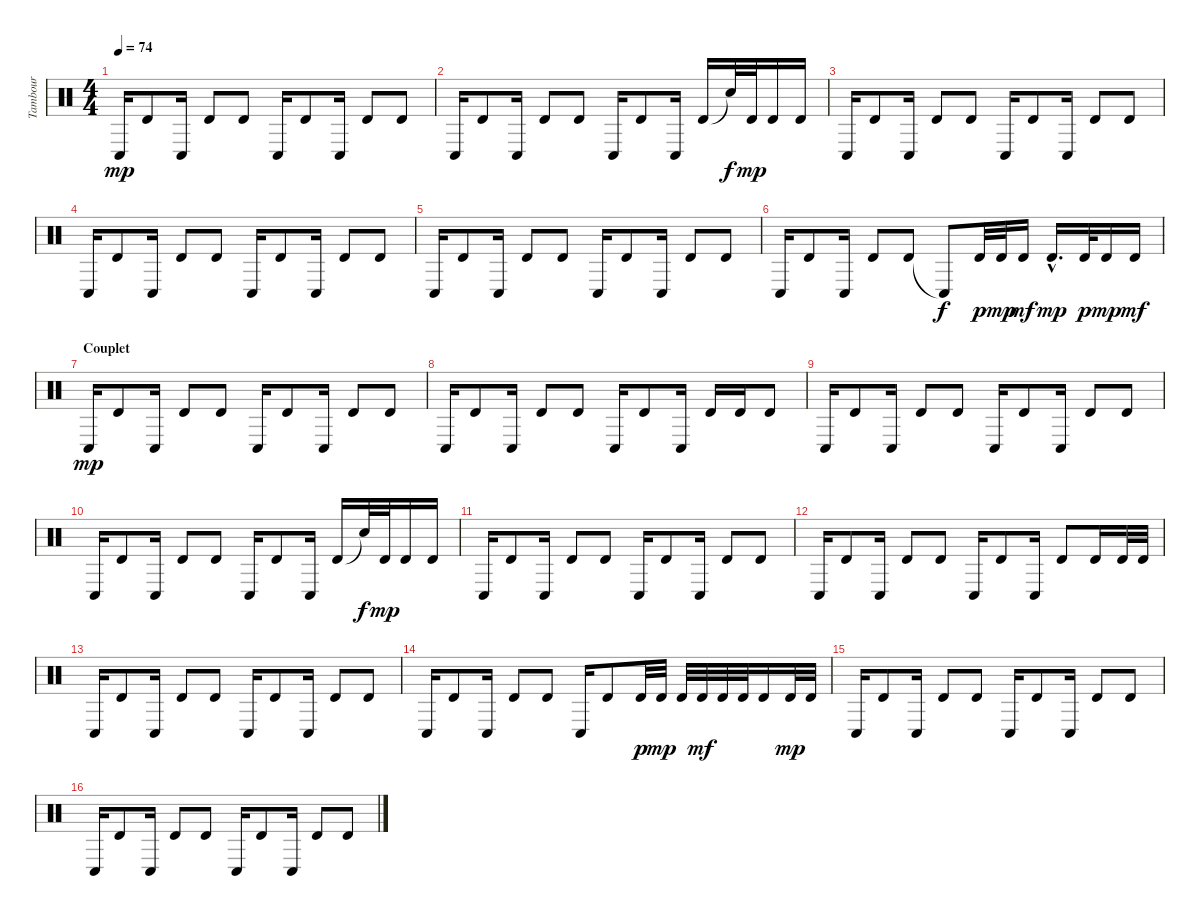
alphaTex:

\track ("Tambour" "Tambour") {instrument percussion}
\staff {score}
\articulation defaults
\ts (4 4)
\tempo 74
\clef neutral
\ks c "Conga low (hit)".16{dy mp} "Timbale high (hit)".8 "Conga low (hit)".16 "Timbale high (hit)".8 "Timbale high (hit)".8 "Conga low (hit)".16 "Timbale high (hit)".8 "Conga low (hit)".16 "Timbale high (hit)".8 "Timbale high (hit)".8
|
"Conga low (hit)".16 "Timbale high (hit)".8 "Conga low (hit)".16 "Timbale high (hit)".8 "Timbale high (hit)".8 "Conga low (hit)".16 "Timbale high (hit)".8 "Conga low (hit)".16 "Timbale high (hit)".16 "Snare (hit)"{t}.32{dy f} "Timbale high (hit)".32{dy mp} "Timbale high (hit)".16 "Timbale high (hit)".16 |
"Conga low (hit)".16 "Timbale high (hit)".8 "Conga low (hit)".16 "Timbale high (hit)".8 "Timbale high (hit)".8 "Conga low (hit)".16 "Timbale high (hit)".8 "Conga low (hit)".16 "Timbale high (hit)".8 "Timbale high (hit)".8 |
"Conga low (hit)".16 "Timbale high (hit)".8 "Conga low (hit)".16 "Timbale high (hit)".8 "Timbale high (hit)".8 "Conga low (hit)".16 "Timbale high (hit)".8 "Conga low (hit)".16 "Timbale high (hit)".8 "Timbale high (hit)".8 |
"Conga low (hit)".16 "Timbale high (hit)".8 "Conga low (hit)".16 "Timbale high (hit)".8 "Timbale high (hit)".8 "Conga low (hit)".16 "Timbale high (hit)".8 "Conga low (hit)".16 "Timbale high (hit)".8 "Timbale high (hit)".8 |
"Conga low (hit)".16 "Timbale high (hit)".8 "Conga low (hit)".16 "Timbale high (hit)".8 "Timbale high (hit)".8 "Conga low (hit)"{t}.8{dy f} "Timbale high (hit)".32{dy p} "Timbale high (hit)".32{dy mp} "Timbale high (hit)".16{dy mf} "Timbale high (hit)"{hac}.16{d dy mp} "Timbale high (hit)".32{dy p} "Timbale high (hit)".16{dy mp} "Timbale high (hit)".16{dy mf} |
\section ("" "Couplet")
"Conga low (hit)".16{dy mp} "Timbale high (hit)".8 "Conga low (hit)".16 "Timbale high (hit)".8 "Timbale high (hit)".8 "Conga low (hit)".16 "Timbale high (hit)".8 "Conga low (hit)".16 "Timbale high (hit)".8 "Timbale high (hit)".8 |
"Conga low (hit)".16 "Timbale high (hit)".8 "Conga low (hit)".16 "Timbale high (hit)".8 "Timbale high (hit)".8 "Conga low (hit)".16 "Timbale high (hit)".8 "Conga low (hit)".16 "Timbale high (hit)".16 "Timbale high (hit)".16 "Timbale high (hit)".8 |
"Conga low (hit)".16 "Timbale high (hit)".8 "Conga low (hit)".16 "Timbale high (hit)".8 "Timbale high (hit)".8 "Conga low (hit)".16 "Timbale high (hit)".8 "Conga low (hit)".16 "Timbale high (hit)".8 "Timbale high (hit)".8 |
"Conga low (hit)".16 "Timbale high (hit)".8 "Conga low (hit)".16 "Timbale high (hit)".8 "Timbale high (hit)".8 "Conga low (hit)".16 "Timbale high (hit)".8 "Conga low (hit)".16 "Timbale high (hit)".16 "Snare (hit)"{t}.32{dy f} "Timbale high (hit)".32{dy mp} "Timbale high (hit)".16 "Timbale high (hit)".16 |
"Conga low (hit)".16 "Timbale high (hit)".8 "Conga low (hit)".16 "Timbale high (hit)".8 "Timbale high (hit)".8 "Conga low (hit)".16 "Timbale high (hit)".8 "Conga low (hit)".16 "Timbale high (hit)".8 "Timbale high (hit)".8 |
"Conga low (hit)".16 "Timbale high (hit)".8 "Conga low (hit)".16 "Timbale high (hit)".8 "Timbale high (hit)".8 "Conga low (hit)".16 "Timbale high (hit)".8 "Conga low (hit)".16 "Timbale high (hit)".8 "Timbale high (hit)".16 "Timbale high (hit)".32 "Timbale high (hit)".32 |
"Conga low (hit)".16 "Timbale high (hit)".8 "Conga low (hit)".16 "Timbale high (hit)".8 "Timbale high (hit)".8 "Conga low (hit)".16 "Timbale high (hit)".8 "Conga low (hit)".16 "Timbale high (hit)".8 "Timbale high (hit)".8 |
"Conga low (hit)".16 "Timbale high (hit)".8 "Conga low (hit)".16 "Timbale high (hit)".8 "Timbale high (hit)".8 "Conga low (hit)".16 "Timbale high (hit)".8 "Timbale high (hit)".32{dy p} "Timbale high (hit)".32{dy mp} "Timbale high (hit)".32 "Timbale high (hit)".32{dy mf} "Timbale high (hit)".32 "Timbale high (hit)".32 "Timbale high (hit)".16 "Timbale high (hit)".32{dy mp} "Timbale high (hit)".32 |
"Conga low (hit)".16 "Timbale high (hit)".8 "Conga low (hit)".16 "Timbale high (hit)".8 "Timbale high (hit)".8 "Conga low (hit)".16 "Timbale high (hit)".8 "Conga low (hit)".16 "Timbale high (hit)".8 "Timbale high (hit)".8 |
"Conga low (hit)".16 "Timbale high (hit)".8 "Conga low (hit)".16 "Timbale high (hit)".8 "Timbale high (hit)".8 "Conga low (hit)".16 "Timbale high (hit)".8 "Conga low (hit)".16 "Timbale high (hit)".8 "Timbale high (hit)".8
